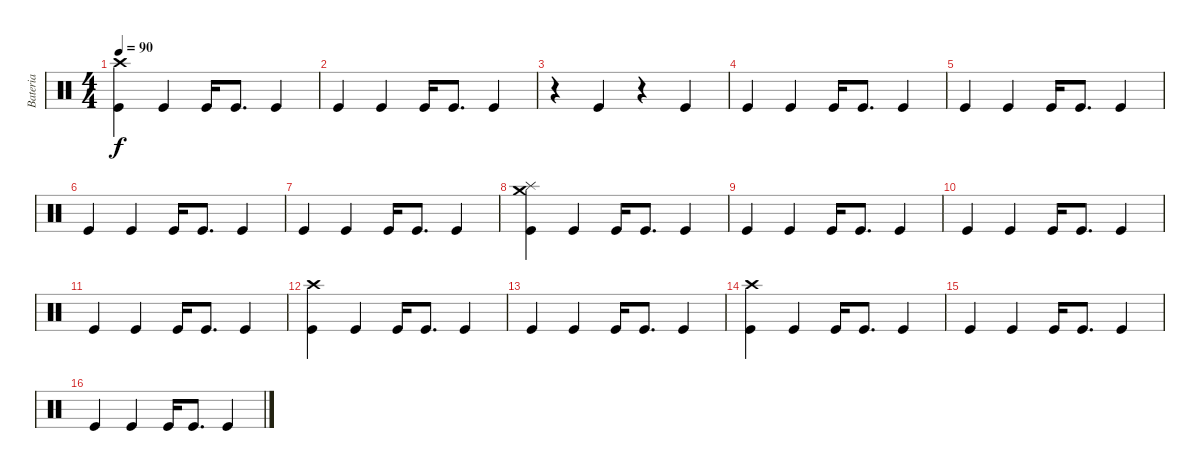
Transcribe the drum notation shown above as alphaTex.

\track ("Bateria" "Bateria") {instrument percussion}
\staff {score}
\articulation defaults
\ts (4 4)
\tempo 90
\clef neutral
\ks c
("Kick (hit)" "Crash high (hit)").4{dy f} "Kick (hit)".4 "Kick (hit)".16 "Kick (hit)".8{d} "Kick (hit)".4 |
"Kick (hit)".4 "Kick (hit)".4 "Kick (hit)".16 "Kick (hit)".8{d} "Kick (hit)".4 |
r.4 "Kick (hit)".4 r.4 "Kick (hit)".4 |
"Kick (hit)".4 "Kick (hit)".4 "Kick (hit)".16 "Kick (hit)".8{d} "Kick (hit)".4 |
"Kick (hit)".4 "Kick (hit)".4 "Kick (hit)".16 "Kick (hit)".8{d} "Kick (hit)".4 |
"Kick (hit)".4 "Kick (hit)".4 "Kick (hit)".16 "Kick (hit)".8{d} "Kick (hit)".4 |
"Kick (hit)".4 "Kick (hit)".4 "Kick (hit)".16 "Kick (hit)".8{d} "Kick (hit)".4 |
("Kick (hit)" "Splash (hit)" "Crash medium (hit)").4 "Kick (hit)".4 "Kick (hit)".16 "Kick (hit)".8{d} "Kick (hit)".4 |
"Kick (hit)".4 "Kick (hit)".4 "Kick (hit)".16 "Kick (hit)".8{d} "Kick (hit)".4 |
"Kick (hit)".4 "Kick (hit)".4 "Kick (hit)".16 "Kick (hit)".8{d} "Kick (hit)".4 |
"Kick (hit)".4 "Kick (hit)".4 "Kick (hit)".16 "Kick (hit)".8{d} "Kick (hit)".4 |
("Kick (hit)" "Crash high (hit)").4 "Kick (hit)".4 "Kick (hit)".16 "Kick (hit)".8{d} "Kick (hit)".4 |
"Kick (hit)".4 "Kick (hit)".4 "Kick (hit)".16 "Kick (hit)".8{d} "Kick (hit)".4 |
("Kick (hit)" "Crash high (hit)").4 "Kick (hit)".4 "Kick (hit)".16 "Kick (hit)".8{d} "Kick (hit)".4 |
"Kick (hit)".4 "Kick (hit)".4 "Kick (hit)".16 "Kick (hit)".8{d} "Kick (hit)".4 |
"Kick (hit)".4 "Kick (hit)".4 "Kick (hit)".16 "Kick (hit)".8{d} "Kick (hit)".4
